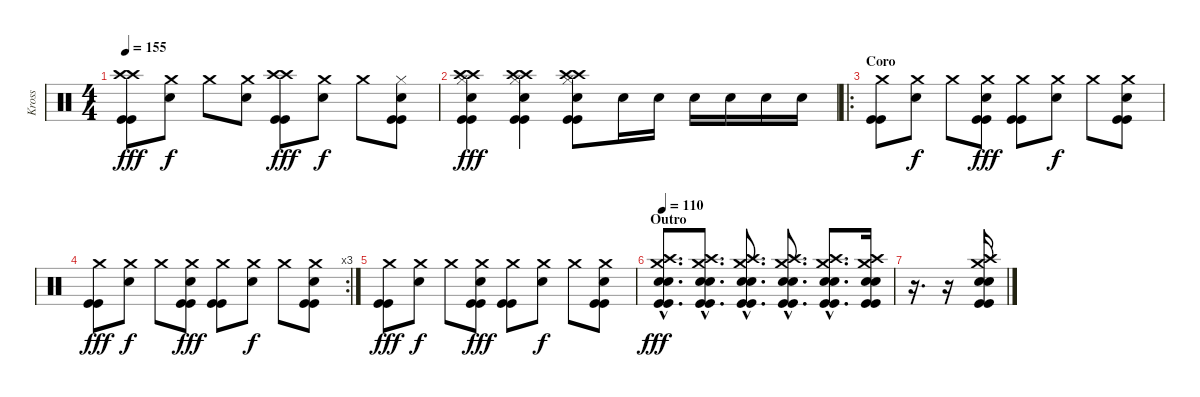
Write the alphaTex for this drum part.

\track ("Kross" "Kross") {instrument percussion}
\staff {score}
\articulation defaults
\ts (4 4)
\tempo 155
\clef neutral
\ks c
("Kick (hit)" "Kick (hit)" "Crash high (hit)" "Crash high (hit)").8{dy fff} ("Crash medium (hit)" "Electric Snare (hit)").8{dy f} "Crash medium (hit)".8 ("Crash medium (hit)" "Electric Snare (hit)").8 ("Kick (hit)" "Kick (hit)" "Crash high (hit)" "Crash high (hit)").8{dy fff} ("Crash medium (hit)" "Electric Snare (hit)").8{dy f} "Crash medium (hit)".8 ("Kick (hit)" "Kick (hit)" "Hi-Hat (closed)" "Electric Snare (hit)").8 |
("Kick (hit)" "Kick (hit)" "Crash high (hit)" "Crash high (hit)" "Hi-Hat (closed)" "Electric Snare (hit)").4{dy fff} ("Kick (hit)" "Kick (hit)" "Crash high (hit)" "Crash high (hit)" "Hi-Hat (closed)" "Electric Snare (hit)").4 ("Kick (hit)" "Kick (hit)" "Crash high (hit)" "Crash high (hit)" "Hi-Hat (closed)" "Electric Snare (hit)").8 "Electric Snare (hit)".16 "Electric Snare (hit)".16 "Electric Snare (hit)".16 "Electric Snare (hit)".16 "Electric Snare (hit)".16 "Electric Snare (hit)".16 |
\ro
\section ("" "Coro")
("Kick (hit)" "Kick (hit)" "Crash medium (hit)").8 ("Crash medium (hit)" "Electric Snare (hit)").8{dy f} "Crash medium (hit)".8 ("Kick (hit)" "Kick (hit)" "Crash medium (hit)" "Electric Snare (hit)").8{dy fff} ("Kick (hit)" "Kick (hit)" "Crash medium (hit)").8 ("Crash medium (hit)" "Electric Snare (hit)").8{dy f} "Crash medium (hit)".8 ("Kick (hit)" "Kick (hit)" "Crash medium (hit)" "Electric Snare (hit)").8 |
\rc 3
("Kick (hit)" "Kick (hit)" "Crash medium (hit)").8{dy fff} ("Crash medium (hit)" "Electric Snare (hit)").8{dy f} "Crash medium (hit)".8 ("Kick (hit)" "Kick (hit)" "Crash medium (hit)" "Electric Snare (hit)").8{dy fff} ("Kick (hit)" "Kick (hit)" "Crash medium (hit)").8 ("Crash medium (hit)" "Electric Snare (hit)").8{dy f} "Crash medium (hit)".8 ("Kick (hit)" "Kick (hit)" "Crash medium (hit)" "Electric Snare (hit)").8 |
("Kick (hit)" "Kick (hit)" "Crash medium (hit)").8{dy fff} ("Crash medium (hit)" "Electric Snare (hit)").8{dy f} "Crash medium (hit)".8 ("Kick (hit)" "Kick (hit)" "Crash medium (hit)" "Electric Snare (hit)").8{dy fff} ("Kick (hit)" "Kick (hit)" "Crash medium (hit)").8 ("Crash medium (hit)" "Electric Snare (hit)").8{dy f} "Crash medium (hit)".8 ("Kick (hit)" "Kick (hit)" "Crash medium (hit)" "Electric Snare (hit)").8 |
\section ("" "Outro")
\tempo 110
("Kick (hit)"{hac} "Kick (hit)"{hac} "Crash high (hit)"{hac} "Crash medium (hit)"{hac} "Electric Snare (hit)"{hac} "Electric Snare (hit)"{hac}).8{d dy fff} ("Kick (hit)"{hac} "Kick (hit)"{hac} "Crash high (hit)"{hac} "Crash medium (hit)"{hac} "Electric Snare (hit)"{hac} "Electric Snare (hit)"{hac}).8{d} ("Kick (hit)"{hac} "Kick (hit)"{hac} "Crash high (hit)"{hac} "Crash medium (hit)"{hac} "Electric Snare (hit)"{hac} "Electric Snare (hit)"{hac}).8{d} ("Kick (hit)"{hac} "Kick (hit)"{hac} "Crash high (hit)"{hac} "Crash medium (hit)"{hac} "Electric Snare (hit)"{hac} "Electric Snare (hit)"{hac}).8{d} ("Kick (hit)"{hac} "Kick (hit)"{hac} "Crash high (hit)"{hac} "Crash medium (hit)"{hac} "Electric Snare (hit)"{hac} "Electric Snare (hit)"{hac}).8{d} ("Kick (hit)" "Kick (hit)" "Crash high (hit)" "Crash medium (hit)" "Electric Snare (hit)" "Electric Snare (hit)").16 |
r.16{d} r.16 ("Kick (hit)" "Kick (hit)" "Crash high (hit)" "Crash medium (hit)" "Electric Snare (hit)" "Electric Snare (hit)").16
